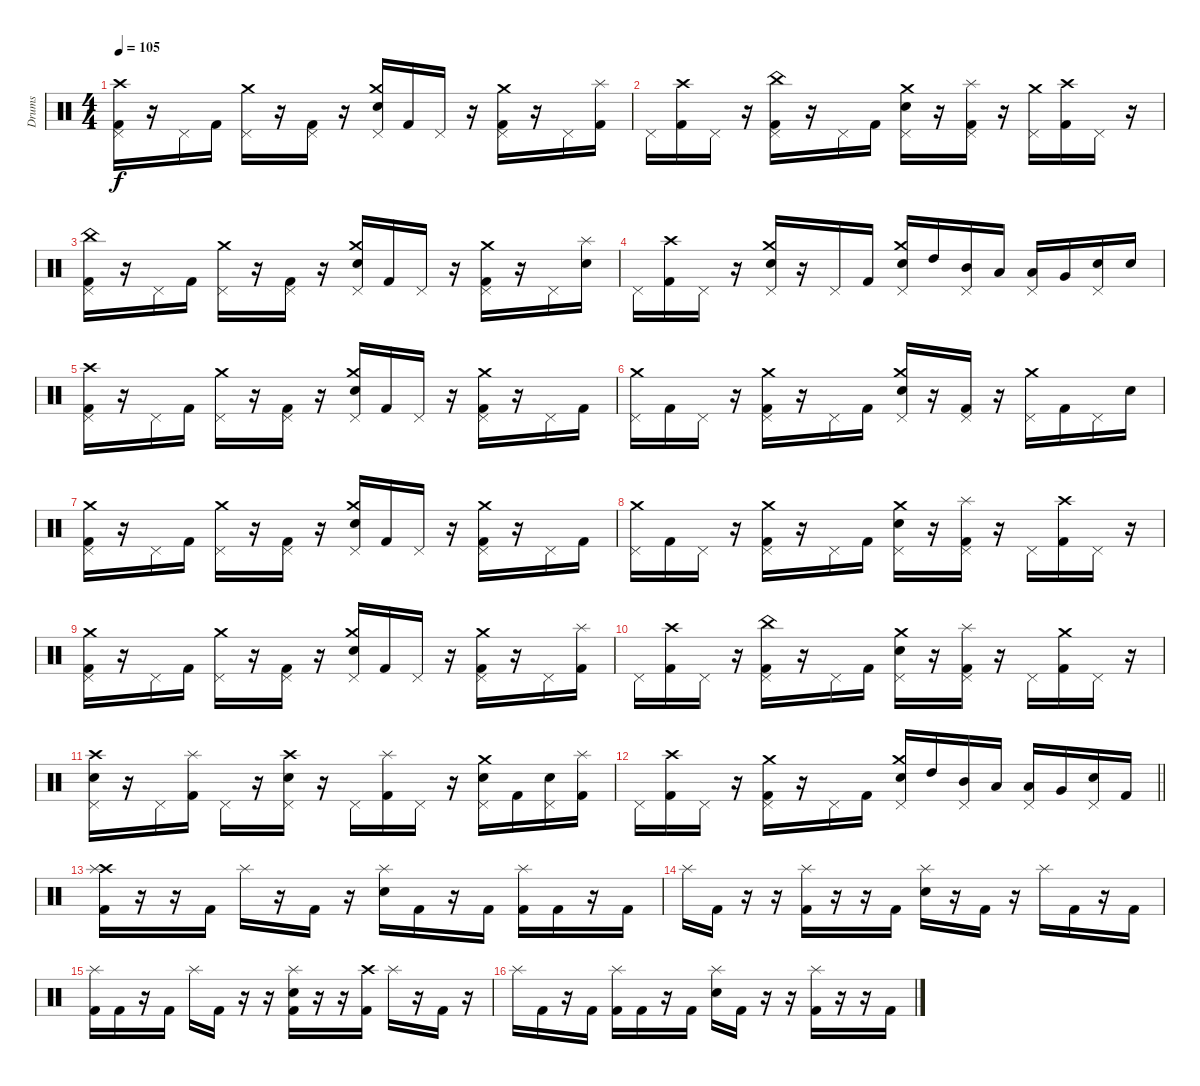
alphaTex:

\track ("Drums" "Drums") {instrument percussion}
\staff {score}
\articulation defaults
\ts (4 4)
\tempo 105
\clef neutral
\ks c
("Crash high (hit)" "Pedal Hi-Hat (hit)" "Kick (hit) 2").16{dy f} r.16 "Pedal Hi-Hat (hit)".16 "Kick (hit) 2".16 ("Crash medium (hit)" "Pedal Hi-Hat (hit)").16 r.16 ("Pedal Hi-Hat (hit)" "Kick (hit) 2").16 r.16 ("Crash medium (hit)" "Pedal Hi-Hat (hit)" "Electric Snare (hit)").16 "Kick (hit) 2".16 "Pedal Hi-Hat (hit)".16 r.16 ("Crash medium (hit)" "Pedal Hi-Hat (hit)" "Kick (hit) 2").16 r.16 "Pedal Hi-Hat (hit)".16 ("Splash (hit)" "Kick (hit) 2").16 |
"Pedal Hi-Hat (hit)".16 ("Crash high (hit)" "Kick (hit) 2").16 "Pedal Hi-Hat (hit)".16 r.16 ("China (hit)" "Pedal Hi-Hat (hit)" "Kick (hit) 2").16 r.16 "Pedal Hi-Hat (hit)".16 "Kick (hit) 2".16 ("Crash medium (hit)" "Pedal Hi-Hat (hit)" "Electric Snare (hit)").16 r.16 ("Splash (hit)" "Pedal Hi-Hat (hit)" "Kick (hit) 2").16 r.16 ("Crash medium (hit)" "Pedal Hi-Hat (hit)").16 ("Crash high (hit)" "Kick (hit) 2").16 "Pedal Hi-Hat (hit)".16 r.16 |
("China (hit)" "Pedal Hi-Hat (hit)" "Kick (hit) 2").16 r.16 "Pedal Hi-Hat (hit)".16 "Kick (hit) 2".16 ("Crash medium (hit)" "Pedal Hi-Hat (hit)").16 r.16 ("Pedal Hi-Hat (hit)" "Kick (hit) 2").16 r.16 ("Crash medium (hit)" "Pedal Hi-Hat (hit)" "Electric Snare (hit)").16 "Kick (hit) 2".16 "Pedal Hi-Hat (hit)".16 r.16 ("Crash medium (hit)" "Pedal Hi-Hat (hit)" "Kick (hit) 2").16 r.16 "Pedal Hi-Hat (hit)".16 ("Splash (hit)" "Electric Snare (hit)").16 |
"Pedal Hi-Hat (hit)".16 ("Crash high (hit)" "Kick (hit) 2").16 "Pedal Hi-Hat (hit)".16 r.16 ("Crash medium (hit)" "Pedal Hi-Hat (hit)" "Electric Snare (hit)").16 r.16 "Pedal Hi-Hat (hit)".16 "Kick (hit) 2".16 ("Crash medium (hit)" "Pedal Hi-Hat (hit)" "Electric Snare (hit)").16 "High Tom (hit)".16 ("Mid Tom (hit)" "Pedal Hi-Hat (hit)").16 "Low Tom (hit)".16 ("Pedal Hi-Hat (hit)" "Low Floor Tom (hit)").16 "Very Low Tom (hit)".16 ("Pedal Hi-Hat (hit)" "Electric Snare (hit)").16 "Electric Snare (hit)".16 |
("Crash high (hit)" "Pedal Hi-Hat (hit)" "Kick (hit) 2").16 r.16 "Pedal Hi-Hat (hit)".16 "Kick (hit) 2".16 ("Crash medium (hit)" "Pedal Hi-Hat (hit)").16 r.16 ("Pedal Hi-Hat (hit)" "Kick (hit) 2").16 r.16 ("Crash medium (hit)" "Pedal Hi-Hat (hit)" "Electric Snare (hit)").16 "Kick (hit) 2".16 "Pedal Hi-Hat (hit)".16 r.16 ("Crash medium (hit)" "Pedal Hi-Hat (hit)" "Kick (hit) 2").16 r.16 "Pedal Hi-Hat (hit)".16 "Kick (hit) 2".16 |
("Crash medium (hit)" "Pedal Hi-Hat (hit)").16 "Kick (hit) 2".16 "Pedal Hi-Hat (hit)".16 r.16 ("Crash medium (hit)" "Pedal Hi-Hat (hit)" "Kick (hit) 2").16 r.16 "Pedal Hi-Hat (hit)".16 "Kick (hit) 2".16 ("Crash medium (hit)" "Pedal Hi-Hat (hit)" "Electric Snare (hit)").16 r.16 ("Pedal Hi-Hat (hit)" "Kick (hit) 2").16 r.16 ("Crash medium (hit)" "Pedal Hi-Hat (hit)").16 "Kick (hit) 2".16 "Pedal Hi-Hat (hit)".16 "Electric Snare (hit)".16 |
("Crash medium (hit)" "Pedal Hi-Hat (hit)" "Kick (hit) 2").16 r.16 "Pedal Hi-Hat (hit)".16 "Kick (hit) 2".16 ("Crash medium (hit)" "Pedal Hi-Hat (hit)").16 r.16 ("Pedal Hi-Hat (hit)" "Kick (hit) 2").16 r.16 ("Crash medium (hit)" "Pedal Hi-Hat (hit)" "Electric Snare (hit)").16 "Kick (hit) 2".16 "Pedal Hi-Hat (hit)".16 r.16 ("Crash medium (hit)" "Pedal Hi-Hat (hit)" "Kick (hit) 2").16 r.16 "Pedal Hi-Hat (hit)".16 "Kick (hit) 2".16 |
("Crash medium (hit)" "Pedal Hi-Hat (hit)").16 "Kick (hit) 2".16 "Pedal Hi-Hat (hit)".16 r.16 ("Crash medium (hit)" "Pedal Hi-Hat (hit)" "Kick (hit) 2").16 r.16 "Pedal Hi-Hat (hit)".16 "Kick (hit) 2".16 ("Crash medium (hit)" "Pedal Hi-Hat (hit)" "Electric Snare (hit)").16 r.16 ("Splash (hit)" "Pedal Hi-Hat (hit)" "Kick (hit) 2").16 r.16 "Pedal Hi-Hat (hit)".16 ("Crash high (hit)" "Kick (hit) 2").16 "Pedal Hi-Hat (hit)".16 r.16 |
("Crash medium (hit)" "Pedal Hi-Hat (hit)" "Kick (hit) 2").16 r.16 "Pedal Hi-Hat (hit)".16 "Kick (hit) 2".16 ("Crash medium (hit)" "Pedal Hi-Hat (hit)").16 r.16 ("Pedal Hi-Hat (hit)" "Kick (hit) 2").16 r.16 ("Crash medium (hit)" "Pedal Hi-Hat (hit)" "Electric Snare (hit)").16 "Kick (hit) 2".16 "Pedal Hi-Hat (hit)".16 r.16 ("Crash medium (hit)" "Pedal Hi-Hat (hit)" "Kick (hit) 2").16 r.16 "Pedal Hi-Hat (hit)".16 ("Splash (hit)" "Kick (hit) 2").16 |
"Pedal Hi-Hat (hit)".16 ("Crash high (hit)" "Kick (hit) 2").16 "Pedal Hi-Hat (hit)".16 r.16 ("China (hit)" "Pedal Hi-Hat (hit)" "Kick (hit) 2").16 r.16 "Pedal Hi-Hat (hit)".16 "Kick (hit) 2".16 ("Crash medium (hit)" "Pedal Hi-Hat (hit)" "Electric Snare (hit)").16 r.16 ("Splash (hit)" "Pedal Hi-Hat (hit)" "Kick (hit) 2").16 r.16 "Pedal Hi-Hat (hit)".16 ("Crash medium (hit)" "Kick (hit) 2").16 "Pedal Hi-Hat (hit)".16 r.16 |
("Crash high (hit)" "Pedal Hi-Hat (hit)" "Electric Snare (hit)").16 r.16 "Pedal Hi-Hat (hit)".16 ("Splash (hit)" "Kick (hit) 2").16 "Pedal Hi-Hat (hit)".16 r.16 ("Crash high (hit)" "Pedal Hi-Hat (hit)" "Electric Snare (hit)").16 r.16 "Pedal Hi-Hat (hit)".16 ("Splash (hit)" "Kick (hit) 2").16 "Pedal Hi-Hat (hit)".16 r.16 ("Crash medium (hit)" "Pedal Hi-Hat (hit)" "Electric Snare (hit)").16 "Kick (hit) 2".16 ("Pedal Hi-Hat (hit)" "Electric Snare (hit)").16 ("Splash (hit)" "Kick (hit) 2").16 |
\barLineRight lightlight "Pedal Hi-Hat (hit)".16
("Crash high (hit)" "Kick (hit) 2").16 "Pedal Hi-Hat (hit)".16 r.16 ("Crash medium (hit)" "Pedal Hi-Hat (hit)" "Kick (hit) 2").16 r.16 "Pedal Hi-Hat (hit)".16 "Kick (hit) 2".16 ("Crash medium (hit)" "Pedal Hi-Hat (hit)" "Electric Snare (hit)").16 "High Tom (hit)".16 ("Mid Tom (hit)" "Pedal Hi-Hat (hit)").16 "Low Tom (hit)".16 ("Pedal Hi-Hat (hit)" "Low Floor Tom (hit)").16 "Very Low Tom (hit)".16 ("Pedal Hi-Hat (hit)" "Electric Snare (hit)").16 "Kick (hit) 2".16 |
\section ("" "")
("Crash high (hit)" "Splash (hit)" "Kick (hit) 2").16 r.16 r.16 "Kick (hit) 2".16 "Splash (hit)".16 r.16 "Kick (hit) 2".16 r.16 ("Splash (hit)" "Electric Snare (hit)").16 "Kick (hit) 2".16 r.16 "Kick (hit) 2".16 ("Splash (hit)" "Kick (hit) 2").16 "Kick (hit) 2".16 r.16 "Kick (hit) 2".16 |
"Splash (hit)".16 "Kick (hit) 2".16 r.16 r.16 ("Splash (hit)" "Kick (hit) 2").16 r.16 r.16 "Kick (hit) 2".16 ("Splash (hit)" "Electric Snare (hit)").16 r.16 "Kick (hit) 2".16 r.16 "Splash (hit)".16 "Kick (hit) 2".16 r.16 "Kick (hit) 2".16 |
("Splash (hit)" "Kick (hit) 2").16 "Kick (hit) 2".16 r.16 "Kick (hit) 2".16 "Splash (hit)".16 "Kick (hit) 2".16 r.16 r.16 ("Splash (hit)" "Electric Snare (hit)" "Kick (hit) 2").16 r.16 r.16 ("Crash high (hit)" "Kick (hit) 2").16 "Splash (hit)".16 r.16 "Kick (hit) 2".16 r.16 |
"Splash (hit)".16 "Kick (hit) 2".16 r.16 "Kick (hit) 2".16 ("Splash (hit)" "Kick (hit) 2").16 "Kick (hit) 2".16 r.16 "Kick (hit) 2".16 ("Splash (hit)" "Electric Snare (hit)").16 "Kick (hit) 2".16 r.16 r.16 ("Splash (hit)" "Kick (hit) 2").16 r.16 r.16 "Kick (hit) 2".16
